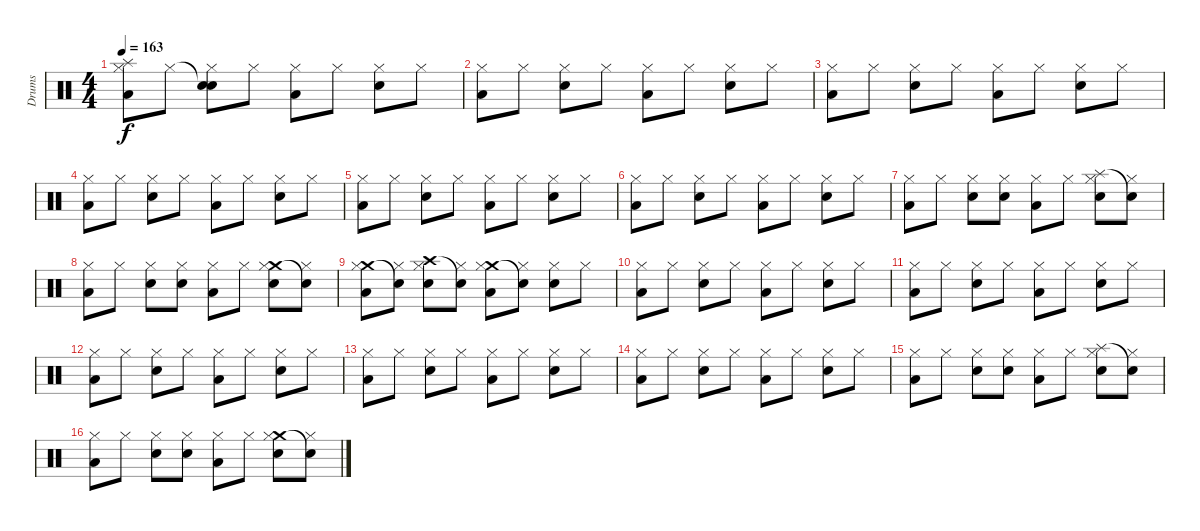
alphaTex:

\track ("Drums" "Drums") {instrument percussion}
\staff {score}
\articulation defaults
\ts (4 4)
\tempo 163
\clef neutral
\ks c
("Splash (hit)" "Low Tom (hit)" "Hi-Hat (closed)").8{dy f} "Hi-Hat (closed)".8 ("Snare (hit)"{t} "Snare (hit) 2" "Hi-Hat (closed)").8 "Hi-Hat (closed)".8 ("Low Tom (hit)" "Hi-Hat (closed)").8 "Hi-Hat (closed)".8 ("Snare (hit) 2" "Hi-Hat (closed)").8 "Hi-Hat (closed)".8 |
("Low Tom (hit)" "Hi-Hat (closed)").8 "Hi-Hat (closed)".8 ("Snare (hit) 2" "Hi-Hat (closed)").8 "Hi-Hat (closed)".8 ("Low Tom (hit)" "Hi-Hat (closed)").8 "Hi-Hat (closed)".8 ("Snare (hit) 2" "Hi-Hat (closed)").8 "Hi-Hat (closed)".8 |
("Low Tom (hit)" "Hi-Hat (closed)").8 "Hi-Hat (closed)".8 ("Snare (hit) 2" "Hi-Hat (closed)").8 "Hi-Hat (closed)".8 ("Low Tom (hit)" "Hi-Hat (closed)").8 "Hi-Hat (closed)".8 ("Snare (hit) 2" "Hi-Hat (closed)").8 "Hi-Hat (closed)".8 |
("Low Tom (hit)" "Hi-Hat (closed)").8 "Hi-Hat (closed)".8 ("Snare (hit) 2" "Hi-Hat (closed)").8 "Hi-Hat (closed)".8 ("Low Tom (hit)" "Hi-Hat (closed)").8 "Hi-Hat (closed)".8 ("Snare (hit) 2" "Hi-Hat (closed)").8 "Hi-Hat (closed)".8 |
("Low Tom (hit)" "Hi-Hat (closed)").8 "Hi-Hat (closed)".8 ("Snare (hit) 2" "Hi-Hat (closed)").8 "Hi-Hat (closed)".8 ("Low Tom (hit)" "Hi-Hat (closed)").8 "Hi-Hat (closed)".8 ("Snare (hit) 2" "Hi-Hat (closed)").8 "Hi-Hat (closed)".8 |
("Low Tom (hit)" "Hi-Hat (closed)").8 "Hi-Hat (closed)".8 ("Snare (hit) 2" "Hi-Hat (closed)").8 "Hi-Hat (closed)".8 ("Low Tom (hit)" "Hi-Hat (closed)").8 "Hi-Hat (closed)".8 ("Snare (hit) 2" "Hi-Hat (closed)").8 "Hi-Hat (closed)".8 |
("Low Tom (hit)" "Hi-Hat (closed)").8 "Hi-Hat (closed)".8 ("Snare (hit) 2" "Hi-Hat (closed)").8 ("Snare (hit) 2" "Hi-Hat (closed)").8 ("Low Tom (hit)" "Hi-Hat (closed)").8 "Hi-Hat (closed)".8 ("Splash (hit)" "Snare (hit) 2" "Hi-Hat (closed)").8 ("Snare (hit)"{t} "Hi-Hat (closed)").8 |
("Low Tom (hit)" "Hi-Hat (closed)").8 "Hi-Hat (closed)".8 ("Snare (hit) 2" "Hi-Hat (closed)").8 ("Snare (hit) 2" "Hi-Hat (closed)").8 ("Low Tom (hit)" "Hi-Hat (closed)").8 "Hi-Hat (closed)".8 ("Crash medium (hit)" "Snare (hit) 2" "Hi-Hat (closed)").8 ("Snare (hit)"{t} "Hi-Hat (closed)").8 |
("Crash medium (hit)" "Low Tom (hit)" "Hi-Hat (closed)").8 ("Snare (hit)"{t} "Hi-Hat (closed)").8 ("Crash high (hit)" "Snare (hit) 2" "Hi-Hat (closed)").8 ("Snare (hit)"{t} "Hi-Hat (closed)").8 ("Crash medium (hit)" "Low Tom (hit)" "Hi-Hat (closed)").8 ("Snare (hit)"{t} "Hi-Hat (closed)").8 ("Snare (hit) 2" "Hi-Hat (closed)").8 "Hi-Hat (closed)".8 |
("Low Tom (hit)" "Hi-Hat (closed)").8 "Hi-Hat (closed)".8 ("Snare (hit) 2" "Hi-Hat (closed)").8 "Hi-Hat (closed)".8 ("Low Tom (hit)" "Hi-Hat (closed)").8 "Hi-Hat (closed)".8 ("Snare (hit) 2" "Hi-Hat (closed)").8 "Hi-Hat (closed)".8 |
("Low Tom (hit)" "Hi-Hat (closed)").8 "Hi-Hat (closed)".8 ("Snare (hit) 2" "Hi-Hat (closed)").8 "Hi-Hat (closed)".8 ("Low Tom (hit)" "Hi-Hat (closed)").8 "Hi-Hat (closed)".8 ("Snare (hit) 2" "Hi-Hat (closed)").8 "Hi-Hat (closed)".8 |
("Low Tom (hit)" "Hi-Hat (closed)").8 "Hi-Hat (closed)".8 ("Snare (hit) 2" "Hi-Hat (closed)").8 "Hi-Hat (closed)".8 ("Low Tom (hit)" "Hi-Hat (closed)").8 "Hi-Hat (closed)".8 ("Snare (hit) 2" "Hi-Hat (closed)").8 "Hi-Hat (closed)".8 |
("Low Tom (hit)" "Hi-Hat (closed)").8 "Hi-Hat (closed)".8 ("Snare (hit) 2" "Hi-Hat (closed)").8 "Hi-Hat (closed)".8 ("Low Tom (hit)" "Hi-Hat (closed)").8 "Hi-Hat (closed)".8 ("Snare (hit) 2" "Hi-Hat (closed)").8 "Hi-Hat (closed)".8 |
("Low Tom (hit)" "Hi-Hat (closed)").8 "Hi-Hat (closed)".8 ("Snare (hit) 2" "Hi-Hat (closed)").8 "Hi-Hat (closed)".8 ("Low Tom (hit)" "Hi-Hat (closed)").8 "Hi-Hat (closed)".8 ("Snare (hit) 2" "Hi-Hat (closed)").8 "Hi-Hat (closed)".8 |
("Low Tom (hit)" "Hi-Hat (closed)").8 "Hi-Hat (closed)".8 ("Snare (hit) 2" "Hi-Hat (closed)").8 ("Snare (hit) 2" "Hi-Hat (closed)").8 ("Low Tom (hit)" "Hi-Hat (closed)").8 "Hi-Hat (closed)".8 ("Splash (hit)" "Snare (hit) 2" "Hi-Hat (closed)").8 ("Snare (hit)"{t} "Hi-Hat (closed)").8 |
("Low Tom (hit)" "Hi-Hat (closed)").8 "Hi-Hat (closed)".8 ("Snare (hit) 2" "Hi-Hat (closed)").8 ("Snare (hit) 2" "Hi-Hat (closed)").8 ("Low Tom (hit)" "Hi-Hat (closed)").8 "Hi-Hat (closed)".8 ("Crash medium (hit)" "Snare (hit) 2" "Hi-Hat (closed)").8 ("Snare (hit)"{t} "Hi-Hat (closed)").8
